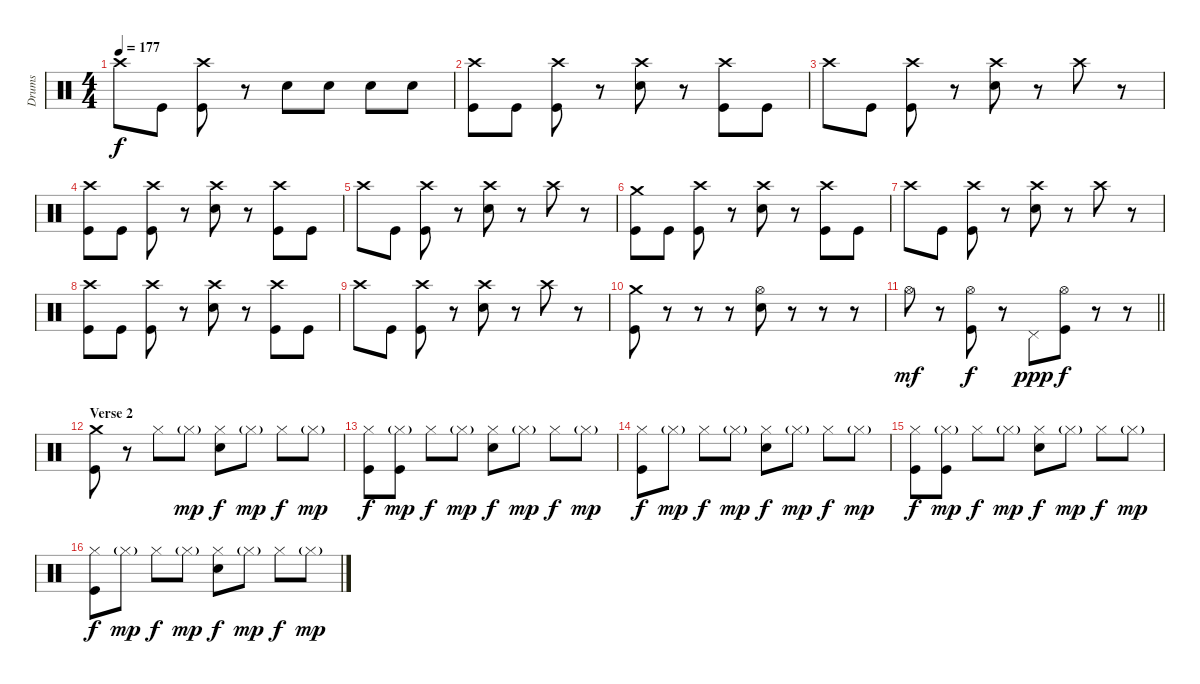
\track ("Drums" "Drums") {instrument percussion}
\staff {score}
\articulation defaults
\ts (4 4)
\tempo 177
\clef neutral
\ks c "Crash high (hit)".8{dy f} "Kick (hit)".8
("Crash high (hit)" "Kick (hit)").8 r.8 "Snare (hit) 2".8 "Snare (hit) 2".8 "Snare (hit) 2".8 "Snare (hit) 2".8 |
("Crash high (hit)" "Kick (hit)").8 "Kick (hit)".8 ("Crash high (hit)" "Kick (hit)").8 r.8 ("Crash high (hit)" "Snare (hit) 2").8 r.8 ("Crash high (hit)" "Kick (hit)").8 "Kick (hit)".8 |
"Crash high (hit)".8 "Kick (hit)".8 ("Crash high (hit)" "Kick (hit)").8 r.8 ("Crash high (hit)" "Snare (hit) 2").8 r.8 "Crash high (hit)".8 r.8 |
("Crash high (hit)" "Kick (hit)").8 "Kick (hit)".8 ("Crash high (hit)" "Kick (hit)").8 r.8 ("Crash high (hit)" "Snare (hit) 2").8 r.8 ("Crash high (hit)" "Kick (hit)").8 "Kick (hit)".8 |
"Crash high (hit)".8 "Kick (hit)".8 ("Crash high (hit)" "Kick (hit)").8 r.8 ("Crash high (hit)" "Snare (hit) 2").8 r.8 "Crash high (hit)".8 r.8 |
("Crash medium (hit)" "Kick (hit)").8 "Kick (hit)".8 ("Crash high (hit)" "Kick (hit)").8 r.8 ("Crash high (hit)" "Snare (hit) 2").8 r.8 ("Crash high (hit)" "Kick (hit)").8 "Kick (hit)".8 |
"Crash high (hit)".8 "Kick (hit)".8 ("Crash high (hit)" "Kick (hit)").8 r.8 ("Crash high (hit)" "Snare (hit) 2").8 r.8 "Crash high (hit)".8 r.8 |
("Crash high (hit)" "Kick (hit)").8 "Kick (hit)".8 ("Crash high (hit)" "Kick (hit)").8 r.8 ("Crash high (hit)" "Snare (hit) 2").8 r.8 ("Crash high (hit)" "Kick (hit)").8 "Kick (hit)".8 |
"Crash high (hit)".8 "Kick (hit)".8 ("Crash high (hit)" "Kick (hit)").8 r.8 ("Crash high (hit)" "Snare (hit) 2").8 r.8 "Crash high (hit)".8 r.8 |
("Crash medium (hit)" "Kick (hit)").8 r.8 r.8 r.8 ("Hi-Hat (open)" "Snare (hit) 2").8 r.8 r.8 r.8 |
\barLineRight lightlight "Hi-Hat (open)".8{dy mf}
r.8 ("Hi-Hat (open)" "Kick (hit)").8{dy f} r.8 "Pedal Hi-Hat (hit)".8{dy ppp} ("Hi-Hat (open)" "Kick (hit)").8{dy f} r.8 r.8 |
\section ("" "Verse 2")
("Crash medium (hit)" "Kick (hit)").8 r.8 "Hi-Hat (closed)".8 "Hi-Hat (closed)"{g}.8{dy mp} ("Hi-Hat (closed)" "Snare (hit) 2").8{dy f} "Hi-Hat (closed)"{g}.8{dy mp} "Hi-Hat (closed)".8{dy f} "Hi-Hat (closed)"{g}.8{dy mp} |
("Hi-Hat (closed)" "Kick (hit)").8{dy f} ("Hi-Hat (closed)"{g} "Kick (hit)").8{dy mp} "Hi-Hat (closed)".8{dy f} "Hi-Hat (closed)"{g}.8{dy mp} ("Hi-Hat (closed)" "Snare (hit) 2").8{dy f} "Hi-Hat (closed)"{g}.8{dy mp} "Hi-Hat (closed)".8{dy f} "Hi-Hat (closed)"{g}.8{dy mp} |
("Hi-Hat (closed)" "Kick (hit)").8{dy f} "Hi-Hat (closed)"{g}.8{dy mp} "Hi-Hat (closed)".8{dy f} "Hi-Hat (closed)"{g}.8{dy mp} ("Hi-Hat (closed)" "Snare (hit) 2").8{dy f} "Hi-Hat (closed)"{g}.8{dy mp} "Hi-Hat (closed)".8{dy f} "Hi-Hat (closed)"{g}.8{dy mp} |
("Hi-Hat (closed)" "Kick (hit)").8{dy f} ("Hi-Hat (closed)"{g} "Kick (hit)").8{dy mp} "Hi-Hat (closed)".8{dy f} "Hi-Hat (closed)"{g}.8{dy mp} ("Hi-Hat (closed)" "Snare (hit) 2").8{dy f} "Hi-Hat (closed)"{g}.8{dy mp} "Hi-Hat (closed)".8{dy f} "Hi-Hat (closed)"{g}.8{dy mp} |
("Hi-Hat (closed)" "Kick (hit)").8{dy f} "Hi-Hat (closed)"{g}.8{dy mp} "Hi-Hat (closed)".8{dy f} "Hi-Hat (closed)"{g}.8{dy mp} ("Hi-Hat (closed)" "Snare (hit) 2").8{dy f} "Hi-Hat (closed)"{g}.8{dy mp} "Hi-Hat (closed)".8{dy f} "Hi-Hat (closed)"{g}.8{dy mp}
